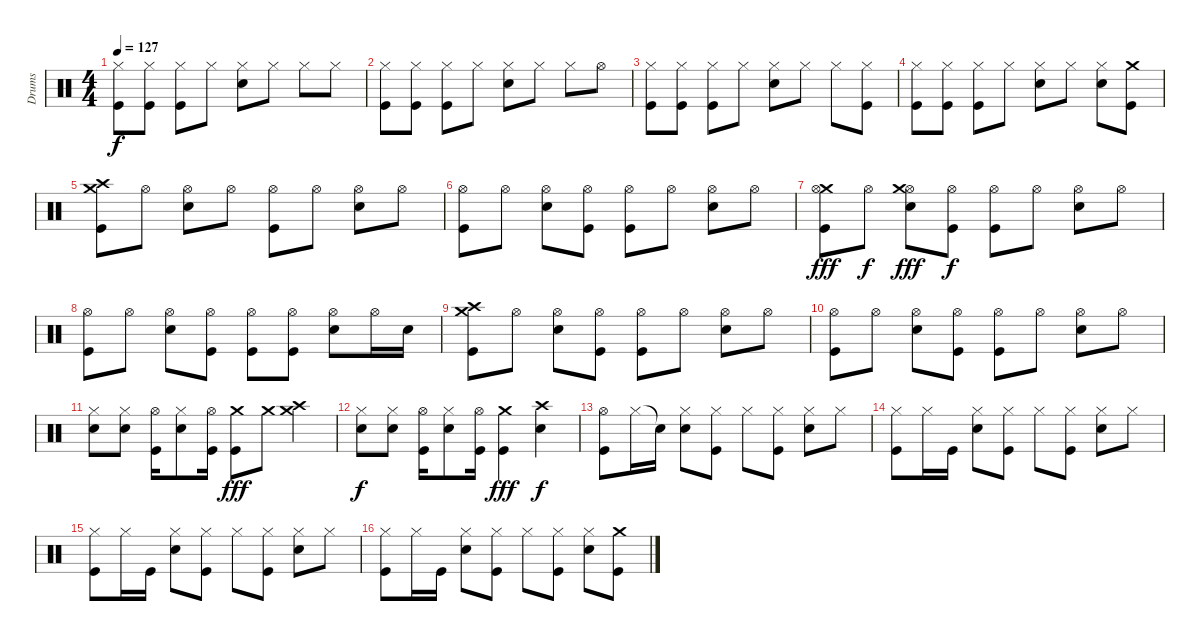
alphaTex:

\track ("Drums" "Drums") {instrument percussion}
\staff {score}
\articulation defaults
\ts (4 4)
\tempo 127
\clef neutral
\ks c
("Hi-Hat (closed)" "Kick (hit)").8{dy f} ("Hi-Hat (closed)" "Kick (hit)").8 ("Hi-Hat (closed)" "Kick (hit)").8 "Hi-Hat (closed)".8 ("Electric Snare (hit)" "Hi-Hat (closed)").8 "Hi-Hat (closed)".8 "Hi-Hat (closed)".8 "Hi-Hat (closed)".8 |
("Hi-Hat (closed)" "Kick (hit)").8 ("Hi-Hat (closed)" "Kick (hit)").8 ("Hi-Hat (closed)" "Kick (hit)").8 "Hi-Hat (closed)".8 ("Electric Snare (hit)" "Hi-Hat (closed)").8 "Hi-Hat (closed)".8 "Hi-Hat (closed)".8 "Hi-Hat (open)".8 |
("Hi-Hat (closed)" "Kick (hit)").8 ("Hi-Hat (closed)" "Kick (hit)").8 ("Hi-Hat (closed)" "Kick (hit)").8 "Hi-Hat (closed)".8 ("Electric Snare (hit)" "Hi-Hat (closed)").8 "Hi-Hat (closed)".8 "Hi-Hat (closed)".8 ("Hi-Hat (closed)" "Kick (hit)").8 |
("Hi-Hat (closed)" "Kick (hit)").8 ("Hi-Hat (closed)" "Kick (hit)").8 ("Hi-Hat (closed)" "Kick (hit)").8 "Hi-Hat (closed)".8 ("Electric Snare (hit)" "Hi-Hat (closed)").8 "Hi-Hat (closed)".8 ("Electric Snare (hit)" "Hi-Hat (closed)").8 ("Crash medium (hit)" "Kick (hit)").8 |
("Crash medium (hit)" "Crash high (hit)" "Kick (hit)").8 "Hi-Hat (open)".8 ("Electric Snare (hit)" "Hi-Hat (open)").8 "Hi-Hat (open)".8 ("Hi-Hat (open)" "Kick (hit)").8 "Hi-Hat (open)".8 ("Electric Snare (hit)" "Hi-Hat (open)").8 "Hi-Hat (open)".8 |
("Hi-Hat (open)" "Kick (hit)").8 "Hi-Hat (open)".8 ("Electric Snare (hit)" "Hi-Hat (open)").8 ("Hi-Hat (open)" "Kick (hit)").8 ("Hi-Hat (open)" "Kick (hit)").8 "Hi-Hat (open)".8 ("Electric Snare (hit)" "Hi-Hat (open)").8 "Hi-Hat (open)".8 |
("Crash medium (hit)" "Hi-Hat (open)" "Kick (hit)").8{dy fff} "Hi-Hat (open)".8{dy f} ("Electric Snare (hit)" "Hi-Hat (open)" "Crash medium (hit)").8{dy fff} ("Hi-Hat (open)" "Kick (hit)").8{dy f} ("Hi-Hat (open)" "Kick (hit)").8 "Hi-Hat (open)".8 ("Electric Snare (hit)" "Hi-Hat (open)").8 "Hi-Hat (open)".8 |
("Hi-Hat (open)" "Kick (hit)").8 "Hi-Hat (open)".8 ("Electric Snare (hit)" "Hi-Hat (open)").8 ("Hi-Hat (open)" "Kick (hit)").8 ("Hi-Hat (open)" "Kick (hit)").8 ("Hi-Hat (open)" "Kick (hit)").8 ("Electric Snare (hit)" "Hi-Hat (open)").8 "Hi-Hat (open)".16 "Electric Snare (hit)".16 |
("Crash medium (hit)" "Crash high (hit)" "Kick (hit)").8 "Hi-Hat (open)".8 ("Electric Snare (hit)" "Hi-Hat (open)").8 ("Hi-Hat (open)" "Kick (hit)").8 ("Hi-Hat (open)" "Kick (hit)").8 "Hi-Hat (open)".8 ("Electric Snare (hit)" "Hi-Hat (open)").8 "Hi-Hat (open)".8 |
("Hi-Hat (open)" "Kick (hit)").8 "Hi-Hat (open)".8 ("Electric Snare (hit)" "Hi-Hat (open)").8 ("Hi-Hat (open)" "Kick (hit)").8 ("Hi-Hat (open)" "Kick (hit)").8 "Hi-Hat (open)".8 ("Electric Snare (hit)" "Hi-Hat (open)").8 "Hi-Hat (open)".8 |
("Electric Snare (hit)" "Hi-Hat (closed)").8 ("Electric Snare (hit)" "Hi-Hat (closed)").8 ("Hi-Hat (open)" "Kick (hit)").16 ("Electric Snare (hit)" "Hi-Hat (closed)").8 ("Hi-Hat (open)" "Kick (hit)").16 ("Crash medium (hit)" "Kick (hit)").8{dy fff} "Crash medium (hit)".8 ("Crash medium (hit)" "Crash high (hit)").4 |
("Electric Snare (hit)" "Hi-Hat (closed)").8{dy f} ("Electric Snare (hit)" "Hi-Hat (closed)").8 ("Hi-Hat (open)" "Kick (hit)").16 ("Electric Snare (hit)" "Hi-Hat (closed)").8 ("Hi-Hat (open)" "Kick (hit)").16 ("Crash medium (hit)" "Kick (hit)").4{dy fff} ("Electric Snare (hit)" "Crash high (hit)").4{dy f} |
("Hi-Hat (open)" "Kick (hit)").8 "Hi-Hat (closed)".16 "Snare (hit)"{t}.16 ("Electric Snare (hit)" "Hi-Hat (closed)").8 ("Hi-Hat (closed)" "Kick (hit)").8 "Hi-Hat (closed)".8 ("Hi-Hat (closed)" "Kick (hit)").8 ("Electric Snare (hit)" "Hi-Hat (closed)").8 "Hi-Hat (closed)".8 |
("Hi-Hat (closed)" "Kick (hit)").8 "Hi-Hat (closed)".16 "Kick (hit)".16 ("Electric Snare (hit)" "Hi-Hat (closed)").8 ("Hi-Hat (closed)" "Kick (hit)").8 "Hi-Hat (closed)".8 ("Hi-Hat (closed)" "Kick (hit)").8 ("Electric Snare (hit)" "Hi-Hat (closed)").8 "Hi-Hat (closed)".8 |
("Hi-Hat (closed)" "Kick (hit)").8 "Hi-Hat (closed)".16 "Kick (hit)".16 ("Electric Snare (hit)" "Hi-Hat (closed)").8 ("Hi-Hat (closed)" "Kick (hit)").8 "Hi-Hat (closed)".8 ("Hi-Hat (closed)" "Kick (hit)").8 ("Electric Snare (hit)" "Hi-Hat (closed)").8 "Hi-Hat (closed)".8 |
("Hi-Hat (closed)" "Kick (hit)").8 "Hi-Hat (closed)".16 "Kick (hit)".16 ("Electric Snare (hit)" "Hi-Hat (closed)").8 ("Hi-Hat (closed)" "Kick (hit)").8 "Hi-Hat (closed)".8 ("Hi-Hat (closed)" "Kick (hit)").8 ("Electric Snare (hit)" "Hi-Hat (closed)").8 ("Crash medium (hit)" "Kick (hit)").8
